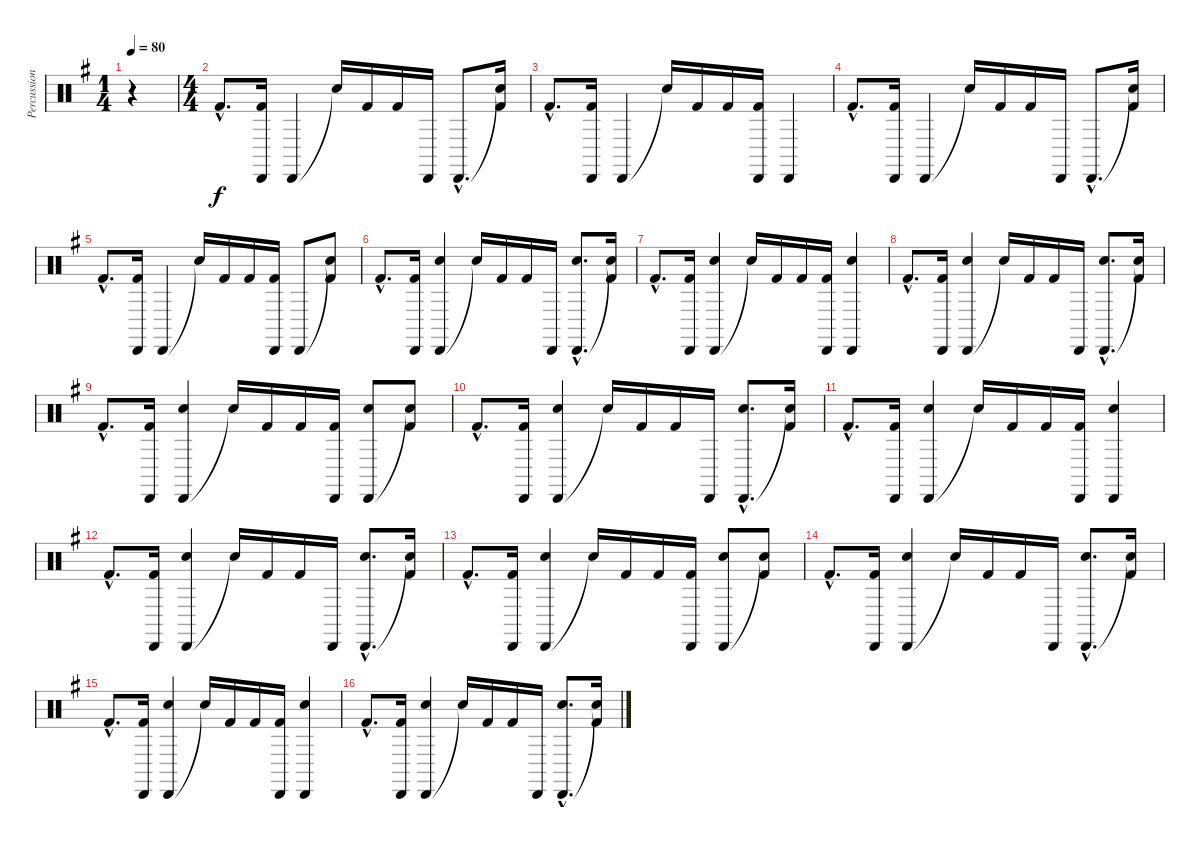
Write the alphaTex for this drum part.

\track ("Percussions" "Percussion") {instrument percussion}
\staff {score}
\articulation defaults
\ts (1 4)
\tempo 80
\clef neutral
\ks g
r.4{dy f} |
\ts (4 4)
"Kick (hit) 2"{hac}.8{d} ("Cabasa (hit)" "Kick (hit) 2").16 "Cabasa (hit)".4 "Snare (hit)"{t}.16 "Kick (hit) 2".16 "Kick (hit) 2".16 "Cabasa (hit)".16 "Cabasa (hit)"{hac}.8{d} ("Snare (hit)"{t} "Kick (hit) 2").16 |
"Kick (hit) 2"{hac}.8{d} ("Cabasa (hit)" "Kick (hit) 2").16 "Cabasa (hit)".4 "Snare (hit)"{t}.16 "Kick (hit) 2".16 "Kick (hit) 2".16 ("Cabasa (hit)" "Kick (hit) 2").16 "Cabasa (hit)".4 |
"Kick (hit) 2"{hac}.8{d} ("Cabasa (hit)" "Kick (hit) 2").16 "Cabasa (hit)".4 "Snare (hit)"{t}.16 "Kick (hit) 2".16 "Kick (hit) 2".16 "Cabasa (hit)".16 "Cabasa (hit)"{hac}.8{d} ("Snare (hit)"{t} "Kick (hit) 2").16 |
"Kick (hit) 2"{hac}.8{d} ("Cabasa (hit)" "Kick (hit) 2").16 "Cabasa (hit)".4 "Snare (hit)"{t}.16 "Kick (hit) 2".16 "Kick (hit) 2".16 ("Cabasa (hit)" "Kick (hit) 2").16 "Cabasa (hit)".8 ("Snare (hit)"{t} "Kick (hit) 2").8 |
"Kick (hit) 2"{hac}.8{d} ("Cabasa (hit)" "Kick (hit) 2").16 ("Cabasa (hit)" "Electric Snare (hit)").4 "Snare (hit)"{t}.16 "Kick (hit) 2".16 "Kick (hit) 2".16 "Cabasa (hit)".16 ("Cabasa (hit)"{hac} "Electric Snare (hit)"{hac}).8{d} ("Snare (hit)"{t} "Kick (hit) 2").16 |
"Kick (hit) 2"{hac}.8{d} ("Cabasa (hit)" "Kick (hit) 2").16 ("Cabasa (hit)" "Electric Snare (hit)").4 "Snare (hit)"{t}.16 "Kick (hit) 2".16 "Kick (hit) 2".16 ("Cabasa (hit)" "Kick (hit) 2").16 ("Cabasa (hit)" "Electric Snare (hit)").4 |
"Kick (hit) 2"{hac}.8{d} ("Cabasa (hit)" "Kick (hit) 2").16 ("Cabasa (hit)" "Electric Snare (hit)").4 "Snare (hit)"{t}.16 "Kick (hit) 2".16 "Kick (hit) 2".16 "Cabasa (hit)".16 ("Cabasa (hit)"{hac} "Electric Snare (hit)"{hac}).8{d} ("Snare (hit)"{t} "Kick (hit) 2").16 |
"Kick (hit) 2"{hac}.8{d} ("Cabasa (hit)" "Kick (hit) 2").16 ("Cabasa (hit)" "Electric Snare (hit)").4 "Snare (hit)"{t}.16 "Kick (hit) 2".16 "Kick (hit) 2".16 ("Cabasa (hit)" "Kick (hit) 2").16 ("Cabasa (hit)" "Electric Snare (hit)").8 ("Snare (hit)"{t} "Kick (hit) 2").8 |
"Kick (hit) 2"{hac}.8{d} ("Cabasa (hit)" "Kick (hit) 2").16 ("Cabasa (hit)" "Electric Snare (hit)").4 "Snare (hit)"{t}.16 "Kick (hit) 2".16 "Kick (hit) 2".16 "Cabasa (hit)".16 ("Cabasa (hit)"{hac} "Electric Snare (hit)"{hac}).8{d} ("Snare (hit)"{t} "Kick (hit) 2").16 |
"Kick (hit) 2"{hac}.8{d} ("Cabasa (hit)" "Kick (hit) 2").16 ("Cabasa (hit)" "Electric Snare (hit)").4 "Snare (hit)"{t}.16 "Kick (hit) 2".16 "Kick (hit) 2".16 ("Cabasa (hit)" "Kick (hit) 2").16 ("Cabasa (hit)" "Electric Snare (hit)").4 |
"Kick (hit) 2"{hac}.8{d} ("Cabasa (hit)" "Kick (hit) 2").16 ("Cabasa (hit)" "Electric Snare (hit)").4 "Snare (hit)"{t}.16 "Kick (hit) 2".16 "Kick (hit) 2".16 "Cabasa (hit)".16 ("Cabasa (hit)"{hac} "Electric Snare (hit)"{hac}).8{d} ("Snare (hit)"{t} "Kick (hit) 2").16 |
"Kick (hit) 2"{hac}.8{d} ("Cabasa (hit)" "Kick (hit) 2").16 ("Cabasa (hit)" "Electric Snare (hit)").4 "Snare (hit)"{t}.16 "Kick (hit) 2".16 "Kick (hit) 2".16 ("Cabasa (hit)" "Kick (hit) 2").16 ("Cabasa (hit)" "Electric Snare (hit)").8 ("Snare (hit)"{t} "Kick (hit) 2").8 |
"Kick (hit) 2"{hac}.8{d} ("Cabasa (hit)" "Kick (hit) 2").16 ("Cabasa (hit)" "Electric Snare (hit)").4 "Snare (hit)"{t}.16 "Kick (hit) 2".16 "Kick (hit) 2".16 "Cabasa (hit)".16 ("Cabasa (hit)"{hac} "Electric Snare (hit)"{hac}).8{d} ("Snare (hit)"{t} "Kick (hit) 2").16 |
"Kick (hit) 2"{hac}.8{d} ("Cabasa (hit)" "Kick (hit) 2").16 ("Cabasa (hit)" "Electric Snare (hit)").4 "Snare (hit)"{t}.16 "Kick (hit) 2".16 "Kick (hit) 2".16 ("Cabasa (hit)" "Kick (hit) 2").16 ("Cabasa (hit)" "Electric Snare (hit)").4 |
"Kick (hit) 2"{hac}.8{d} ("Cabasa (hit)" "Kick (hit) 2").16 ("Cabasa (hit)" "Electric Snare (hit)").4 "Snare (hit)"{t}.16 "Kick (hit) 2".16 "Kick (hit) 2".16 "Cabasa (hit)".16 ("Cabasa (hit)"{hac} "Electric Snare (hit)"{hac}).8{d} ("Snare (hit)"{t} "Kick (hit) 2").16
